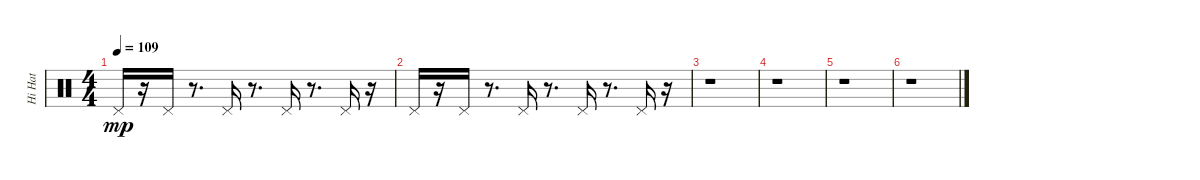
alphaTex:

\track ("Hi Hat" "Hi Hat") {instrument percussion}
\staff {score}
\articulation defaults
\ts (4 4)
\tempo 109
\clef neutral
\ks c "Pedal Hi-Hat (hit)".16{dy mp}
r.16 "Pedal Hi-Hat (hit)".16 r.8{d} "Pedal Hi-Hat (hit)".16 r.8{d} "Pedal Hi-Hat (hit)".16 r.8{d} "Pedal Hi-Hat (hit)".16 r.16 |
"Pedal Hi-Hat (hit)".16 r.16 "Pedal Hi-Hat (hit)".16 r.8{d} "Pedal Hi-Hat (hit)".16 r.8{d} "Pedal Hi-Hat (hit)".16 r.8{d} "Pedal Hi-Hat (hit)".16 r.16 |
r.1 |
r.1 |
r.1 |
r.1
